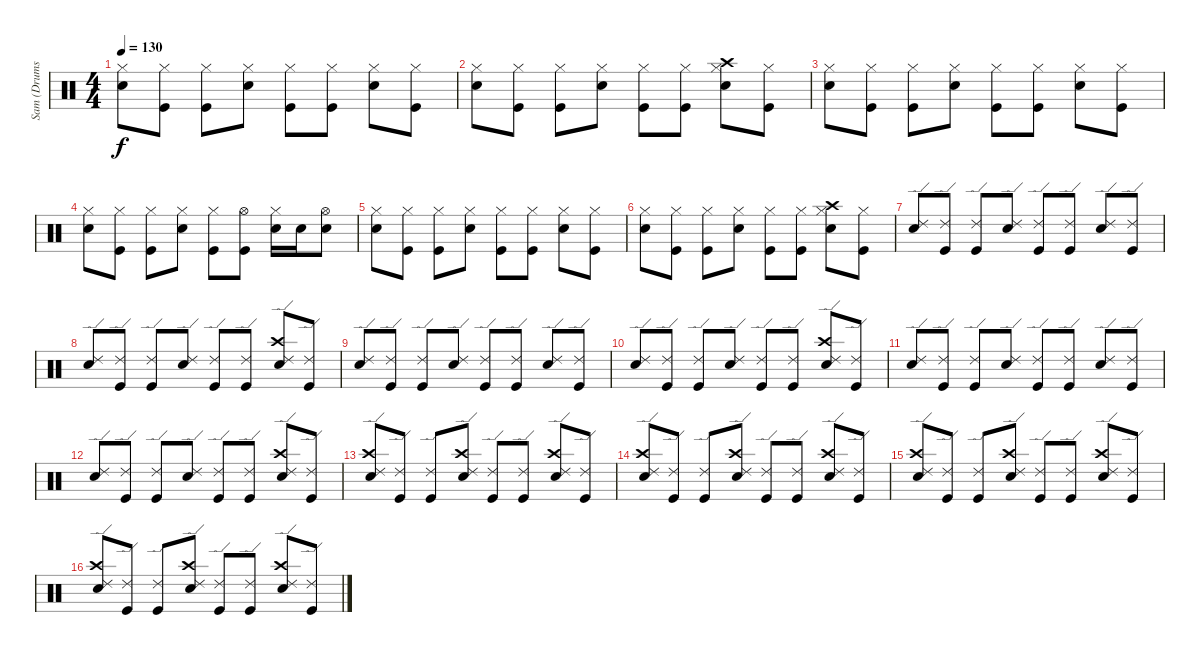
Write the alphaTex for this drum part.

\track ("Sam (Drums)" "Sam (Drums") {instrument percussion}
\staff {score}
\articulation defaults
\ts (4 4)
\tempo 130
\clef neutral
\ks c
("Hi-Hat (closed)" "Snare (hit) 2").8{dy f} ("Hi-Hat (closed)" "Kick (hit)").8 ("Hi-Hat (closed)" "Kick (hit)").8 ("Hi-Hat (closed)" "Snare (hit) 2").8 ("Hi-Hat (closed)" "Kick (hit)").8 ("Hi-Hat (closed)" "Kick (hit)").8 ("Hi-Hat (closed)" "Snare (hit) 2").8 ("Hi-Hat (closed)" "Kick (hit)").8 |
("Hi-Hat (closed)" "Snare (hit) 2").8 ("Hi-Hat (closed)" "Kick (hit)").8 ("Hi-Hat (closed)" "Kick (hit)").8 ("Hi-Hat (closed)" "Snare (hit) 2").8 ("Hi-Hat (closed)" "Kick (hit)").8 ("Hi-Hat (closed)" "Kick (hit)").8 ("Crash high (hit)" "Hi-Hat (closed)" "Snare (hit) 2").8 ("Hi-Hat (closed)" "Kick (hit)").8 |
("Hi-Hat (closed)" "Snare (hit) 2").8 ("Hi-Hat (closed)" "Kick (hit)").8 ("Hi-Hat (closed)" "Kick (hit)").8 ("Hi-Hat (closed)" "Snare (hit) 2").8 ("Hi-Hat (closed)" "Kick (hit)").8 ("Hi-Hat (closed)" "Kick (hit)").8 ("Hi-Hat (closed)" "Snare (hit) 2").8 ("Hi-Hat (closed)" "Kick (hit)").8 |
("Hi-Hat (closed)" "Snare (hit) 2").8 ("Hi-Hat (closed)" "Kick (hit)").8 ("Hi-Hat (closed)" "Kick (hit)").8 ("Hi-Hat (closed)" "Snare (hit) 2").8 ("Hi-Hat (closed)" "Kick (hit)").8 ("Hi-Hat (open)" "Kick (hit)").8 ("Hi-Hat (closed)" "Snare (hit) 2").16 "Snare (hit) 2".16 ("Hi-Hat (open)" "Snare (hit) 2").8 |
("Hi-Hat (closed)" "Snare (hit) 2").8 ("Hi-Hat (closed)" "Kick (hit)").8 ("Hi-Hat (closed)" "Kick (hit)").8 ("Hi-Hat (closed)" "Snare (hit) 2").8 ("Hi-Hat (closed)" "Kick (hit)").8 ("Hi-Hat (closed)" "Kick (hit)").8 ("Hi-Hat (closed)" "Snare (hit) 2").8 ("Hi-Hat (closed)" "Kick (hit)").8 |
("Hi-Hat (closed)" "Snare (hit) 2").8 ("Hi-Hat (closed)" "Kick (hit)").8 ("Hi-Hat (closed)" "Kick (hit)").8 ("Hi-Hat (closed)" "Snare (hit) 2").8 ("Hi-Hat (closed)" "Kick (hit)").8 ("Hi-Hat (closed)" "Kick (hit)").8 ("Crash high (hit)" "Hi-Hat (closed)" "Snare (hit) 2").8 ("Hi-Hat (closed)" "Kick (hit)").8 |
("Ride (edge) 2" "Snare (hit) 2").8 ("Ride (edge) 2" "Kick (hit)").8 ("Ride (edge) 2" "Kick (hit)").8 ("Ride (edge) 2" "Snare (hit) 2").8 ("Ride (edge) 2" "Kick (hit)").8 ("Ride (edge) 2" "Kick (hit)").8 ("Ride (edge) 2" "Snare (hit) 2").8 ("Ride (edge) 2" "Kick (hit)").8 |
("Ride (edge) 2" "Snare (hit) 2").8 ("Ride (edge) 2" "Kick (hit)").8 ("Ride (edge) 2" "Kick (hit)").8 ("Ride (edge) 2" "Snare (hit) 2").8 ("Ride (edge) 2" "Kick (hit)").8 ("Ride (edge) 2" "Kick (hit)").8 ("Crash high (hit)" "Ride (edge) 2" "Snare (hit) 2").8 ("Ride (edge) 2" "Kick (hit)").8 |
("Ride (edge) 2" "Snare (hit) 2").8 ("Ride (edge) 2" "Kick (hit)").8 ("Ride (edge) 2" "Kick (hit)").8 ("Ride (edge) 2" "Snare (hit) 2").8 ("Ride (edge) 2" "Kick (hit)").8 ("Ride (edge) 2" "Kick (hit)").8 ("Ride (edge) 2" "Snare (hit) 2").8 ("Ride (edge) 2" "Kick (hit)").8 |
("Ride (edge) 2" "Snare (hit) 2").8 ("Ride (edge) 2" "Kick (hit)").8 ("Ride (edge) 2" "Kick (hit)").8 ("Ride (edge) 2" "Snare (hit) 2").8 ("Ride (edge) 2" "Kick (hit)").8 ("Ride (edge) 2" "Kick (hit)").8 ("Crash high (hit)" "Ride (edge) 2" "Snare (hit) 2").8 ("Ride (edge) 2" "Kick (hit)").8 |
("Ride (edge) 2" "Snare (hit) 2").8 ("Ride (edge) 2" "Kick (hit)").8 ("Ride (edge) 2" "Kick (hit)").8 ("Ride (edge) 2" "Snare (hit) 2").8 ("Ride (edge) 2" "Kick (hit)").8 ("Ride (edge) 2" "Kick (hit)").8 ("Ride (edge) 2" "Snare (hit) 2").8 ("Ride (edge) 2" "Kick (hit)").8 |
("Ride (edge) 2" "Snare (hit) 2").8 ("Ride (edge) 2" "Kick (hit)").8 ("Ride (edge) 2" "Kick (hit)").8 ("Ride (edge) 2" "Snare (hit) 2").8 ("Ride (edge) 2" "Kick (hit)").8 ("Ride (edge) 2" "Kick (hit)").8 ("Crash high (hit)" "Ride (edge) 2" "Snare (hit) 2").8 ("Ride (edge) 2" "Kick (hit)").8 |
("Crash high (hit)" "Ride (edge) 2" "Snare (hit) 2").8 ("Ride (edge) 2" "Kick (hit)").8 ("Ride (edge) 2" "Kick (hit)").8 ("Crash high (hit)" "Ride (edge) 2" "Snare (hit) 2").8 ("Ride (edge) 2" "Kick (hit)").8 ("Ride (edge) 2" "Kick (hit)").8 ("Crash high (hit)" "Ride (edge) 2" "Snare (hit) 2").8 ("Ride (edge) 2" "Kick (hit)").8 |
("Crash high (hit)" "Ride (edge) 2" "Snare (hit) 2").8 ("Ride (edge) 2" "Kick (hit)").8 ("Ride (edge) 2" "Kick (hit)").8 ("Crash high (hit)" "Ride (edge) 2" "Snare (hit) 2").8 ("Ride (edge) 2" "Kick (hit)").8 ("Ride (edge) 2" "Kick (hit)").8 ("Crash high (hit)" "Ride (edge) 2" "Snare (hit) 2").8 ("Ride (edge) 2" "Kick (hit)").8 |
("Crash high (hit)" "Ride (edge) 2" "Snare (hit) 2").8 ("Ride (edge) 2" "Kick (hit)").8 ("Ride (edge) 2" "Kick (hit)").8 ("Crash high (hit)" "Ride (edge) 2" "Snare (hit) 2").8 ("Ride (edge) 2" "Kick (hit)").8 ("Ride (edge) 2" "Kick (hit)").8 ("Crash high (hit)" "Ride (edge) 2" "Snare (hit) 2").8 ("Ride (edge) 2" "Kick (hit)").8 |
("Crash high (hit)" "Ride (edge) 2" "Snare (hit) 2").8 ("Ride (edge) 2" "Kick (hit)").8 ("Ride (edge) 2" "Kick (hit)").8 ("Crash high (hit)" "Ride (edge) 2" "Snare (hit) 2").8 ("Ride (edge) 2" "Kick (hit)").8 ("Ride (edge) 2" "Kick (hit)").8 ("Crash high (hit)" "Ride (edge) 2" "Snare (hit) 2").8 ("Ride (edge) 2" "Kick (hit)").8
